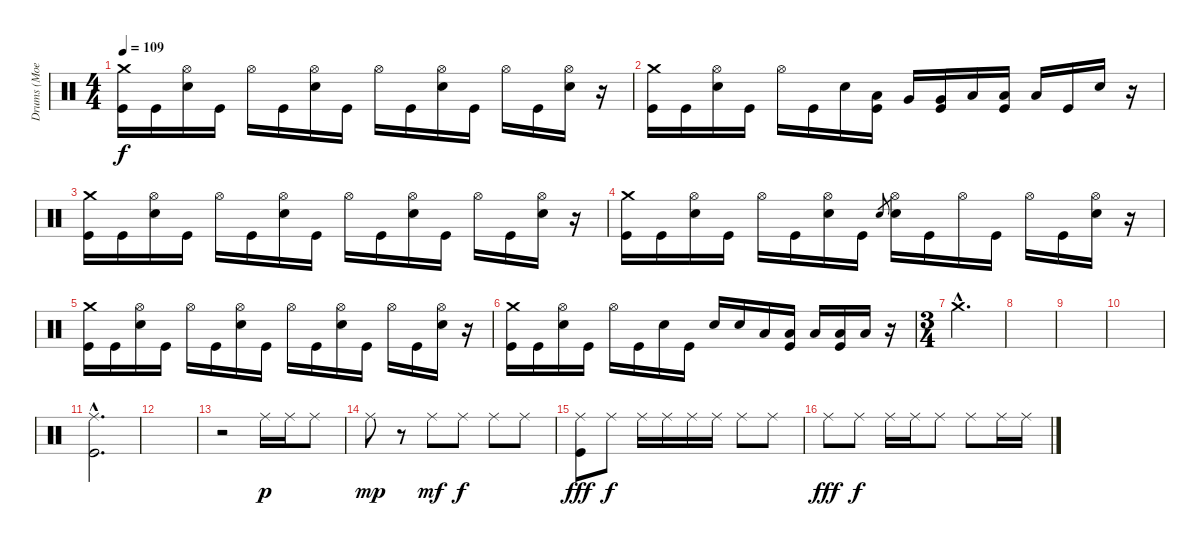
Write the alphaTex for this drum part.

\track ("Drums (Moe)" "Drums (Moe") {instrument percussion}
\staff {score}
\articulation defaults
\ts (4 4)
\tempo 109
\clef neutral
\ks c
("Kick (hit)" "Crash medium (hit)").16{dy f} "Kick (hit)".16 ("Snare (hit) 2" "Hi-Hat (open)").16 "Kick (hit)".16 "Hi-Hat (open)".16 "Kick (hit)".16 ("Snare (hit) 2" "Hi-Hat (open)").16 "Kick (hit)".16 "Hi-Hat (open)".16 "Kick (hit)".16 ("Snare (hit) 2" "Hi-Hat (open)").16 "Kick (hit)".16 "Hi-Hat (open)".16 "Kick (hit)".16 ("Snare (hit) 2" "Hi-Hat (open)").16 r.16 |
("Kick (hit)" "Crash medium (hit)").16 "Kick (hit)".16 ("Snare (hit) 2" "Hi-Hat (open)").16 "Kick (hit)".16 "Hi-Hat (open)".16 "Kick (hit)".16 "Snare (hit) 2".16 ("Kick (hit)" "Low Tom (hit)").16 "Very Low Tom (hit)".16 ("Kick (hit)" "Very Low Tom (hit)").16 "Low Floor Tom (hit)".16 ("Kick (hit)" "Low Floor Tom (hit)").16 "Low Floor Tom (hit)".16 "Kick (hit)".16 "Snare (hit) 2".16 r.16 |
("Kick (hit)" "Crash medium (hit)").16 "Kick (hit)".16 ("Snare (hit) 2" "Hi-Hat (open)").16 "Kick (hit)".16 "Hi-Hat (open)".16 "Kick (hit)".16 ("Snare (hit) 2" "Hi-Hat (open)").16 "Kick (hit)".16 "Hi-Hat (open)".16 "Kick (hit)".16 ("Snare (hit) 2" "Hi-Hat (open)").16 "Kick (hit)".16 "Hi-Hat (open)".16 "Kick (hit)".16 ("Snare (hit) 2" "Hi-Hat (open)").16 r.16 |
("Kick (hit)" "Crash medium (hit)").16 "Kick (hit)".16 ("Snare (hit) 2" "Hi-Hat (open)").16 "Kick (hit)".16 "Hi-Hat (open)".16 "Kick (hit)".16 ("Snare (hit) 2" "Hi-Hat (open)").16 "Kick (hit)".16 "Snare (hit) 2".8{gr} ("Snare (hit) 2" "Hi-Hat (open)").16 "Kick (hit)".16 "Hi-Hat (open)".16 "Kick (hit)".16 "Hi-Hat (open)".16 "Kick (hit)".16 ("Snare (hit) 2" "Hi-Hat (open)").16 r.16 |
("Kick (hit)" "Crash medium (hit)").16 "Kick (hit)".16 ("Snare (hit) 2" "Hi-Hat (open)").16 "Kick (hit)".16 "Hi-Hat (open)".16 "Kick (hit)".16 ("Snare (hit) 2" "Hi-Hat (open)").16 "Kick (hit)".16 "Hi-Hat (open)".16 "Kick (hit)".16 ("Snare (hit) 2" "Hi-Hat (open)").16 "Kick (hit)".16 "Hi-Hat (open)".16 "Kick (hit)".16 ("Snare (hit) 2" "Hi-Hat (open)").16 r.16 |
("Kick (hit)" "Crash medium (hit)").16 "Kick (hit)".16 ("Snare (hit) 2" "Hi-Hat (open)").16 "Kick (hit)".16 "Hi-Hat (open)".16 "Kick (hit)".16 "Snare (hit) 2".16 "Kick (hit)".16 "Snare (hit) 2".16 "Snare (hit) 2".16 "Low Tom (hit)".16 ("Kick (hit)" "Low Tom (hit)").16 "Low Floor Tom (hit)".16 ("Kick (hit)" "Low Floor Tom (hit)").16 "Low Floor Tom (hit)".16 r.16 |
\ts (3 4)
"Crash medium (hit)"{hac}.2{d} |
|
|
|
("Kick (hit)"{hac} "Ride (middle)"{hac}).2{d} |
|
r.2 "Ride (middle)".16{dy p} "Ride (middle)".16 "Ride (middle)".8 |
"Ride (middle)".8{dy mp} r.8 "Ride (middle)".8{dy mf} "Ride (middle)".8{dy f} "Ride (middle)".8 "Ride (middle)".8 |
("Kick (hit)" "Ride (middle)").8{dy fff} "Ride (middle)".8{dy f} "Ride (middle)".16 "Ride (middle)".16 "Ride (middle)".16 "Ride (middle)".16 "Ride (middle)".8 "Ride (middle)".8 |
"Ride (middle)".8{dy fff} "Ride (middle)".8{dy f} "Ride (middle)".16 "Ride (middle)".16 "Ride (middle)".8 "Ride (middle)".8 "Ride (middle)".16 "Ride (middle)".16
